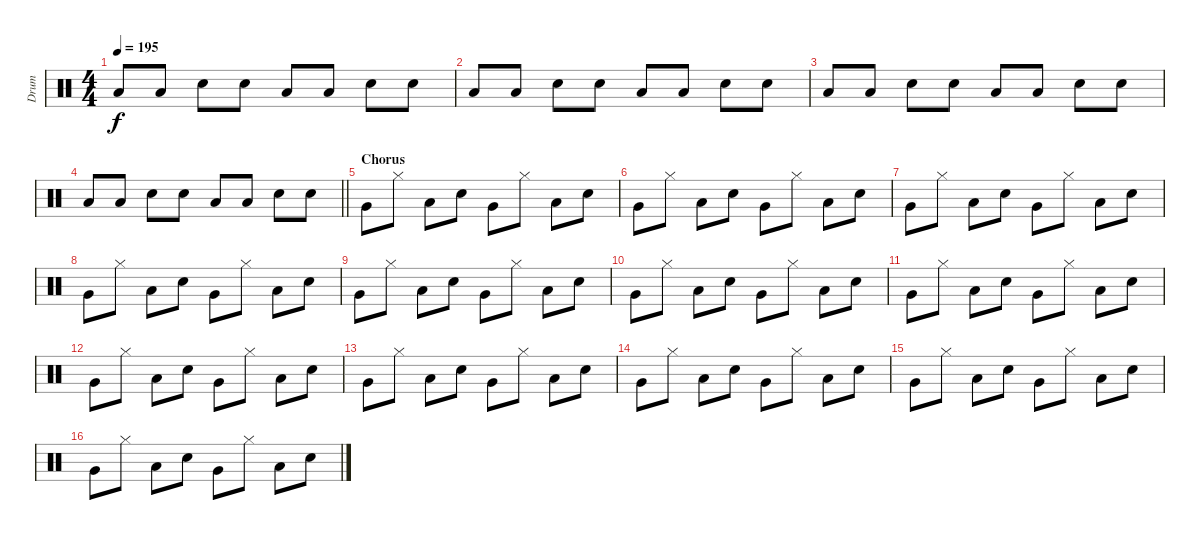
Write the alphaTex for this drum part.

\track ("Drum" "Drum") {instrument percussion}
\staff {score}
\articulation defaults
\ts (4 4)
\tempo 195
\clef neutral
\ks c "Low Floor Tom (hit)".8{dy f} "Low Floor Tom (hit)".8 "Electric Snare (hit)".8 "Electric Snare (hit)".8 "Low Floor Tom (hit)".8 "Low Floor Tom (hit)".8 "Electric Snare (hit)".8 "Electric Snare (hit)".8
|
"Low Floor Tom (hit)".8 "Low Floor Tom (hit)".8 "Electric Snare (hit)".8 "Electric Snare (hit)".8 "Low Floor Tom (hit)".8 "Low Floor Tom (hit)".8 "Electric Snare (hit)".8 "Electric Snare (hit)".8 |
"Low Floor Tom (hit)".8 "Low Floor Tom (hit)".8 "Electric Snare (hit)".8 "Electric Snare (hit)".8 "Low Floor Tom (hit)".8 "Low Floor Tom (hit)".8 "Electric Snare (hit)".8 "Electric Snare (hit)".8 |
\barLineRight lightlight "Low Floor Tom (hit)".8 "Low Floor Tom (hit)".8 "Electric Snare (hit)".8 "Electric Snare (hit)".8 "Low Floor Tom (hit)".8 "Low Floor Tom (hit)".8 "Electric Snare (hit)".8 "Electric Snare (hit)".8
|
\section ("" "Chorus")
"Very Low Tom (hit)".8 "Hi-Hat (closed)".8 "Low Floor Tom (hit)".8 "Electric Snare (hit)".8 "Very Low Tom (hit)".8 "Hi-Hat (closed)".8 "Low Floor Tom (hit)".8 "Electric Snare (hit)".8 |
"Very Low Tom (hit)".8 "Hi-Hat (closed)".8 "Low Floor Tom (hit)".8 "Electric Snare (hit)".8 "Very Low Tom (hit)".8 "Hi-Hat (closed)".8 "Low Floor Tom (hit)".8 "Electric Snare (hit)".8 |
"Very Low Tom (hit)".8 "Hi-Hat (closed)".8 "Low Floor Tom (hit)".8 "Electric Snare (hit)".8 "Very Low Tom (hit)".8 "Hi-Hat (closed)".8 "Low Floor Tom (hit)".8 "Electric Snare (hit)".8 |
"Very Low Tom (hit)".8 "Hi-Hat (closed)".8 "Low Floor Tom (hit)".8 "Electric Snare (hit)".8 "Very Low Tom (hit)".8 "Hi-Hat (closed)".8 "Low Floor Tom (hit)".8 "Electric Snare (hit)".8 |
"Very Low Tom (hit)".8 "Hi-Hat (closed)".8 "Low Floor Tom (hit)".8 "Electric Snare (hit)".8 "Very Low Tom (hit)".8 "Hi-Hat (closed)".8 "Low Floor Tom (hit)".8 "Electric Snare (hit)".8 |
"Very Low Tom (hit)".8 "Hi-Hat (closed)".8 "Low Floor Tom (hit)".8 "Electric Snare (hit)".8 "Very Low Tom (hit)".8 "Hi-Hat (closed)".8 "Low Floor Tom (hit)".8 "Electric Snare (hit)".8 |
"Very Low Tom (hit)".8 "Hi-Hat (closed)".8 "Low Floor Tom (hit)".8 "Electric Snare (hit)".8 "Very Low Tom (hit)".8 "Hi-Hat (closed)".8 "Low Floor Tom (hit)".8 "Electric Snare (hit)".8 |
"Very Low Tom (hit)".8 "Hi-Hat (closed)".8 "Low Floor Tom (hit)".8 "Electric Snare (hit)".8 "Very Low Tom (hit)".8 "Hi-Hat (closed)".8 "Low Floor Tom (hit)".8 "Electric Snare (hit)".8 |
"Very Low Tom (hit)".8 "Hi-Hat (closed)".8 "Low Floor Tom (hit)".8 "Electric Snare (hit)".8 "Very Low Tom (hit)".8 "Hi-Hat (closed)".8 "Low Floor Tom (hit)".8 "Electric Snare (hit)".8 |
"Very Low Tom (hit)".8 "Hi-Hat (closed)".8 "Low Floor Tom (hit)".8 "Electric Snare (hit)".8 "Very Low Tom (hit)".8 "Hi-Hat (closed)".8 "Low Floor Tom (hit)".8 "Electric Snare (hit)".8 |
"Very Low Tom (hit)".8 "Hi-Hat (closed)".8 "Low Floor Tom (hit)".8 "Electric Snare (hit)".8 "Very Low Tom (hit)".8 "Hi-Hat (closed)".8 "Low Floor Tom (hit)".8 "Electric Snare (hit)".8 |
"Very Low Tom (hit)".8 "Hi-Hat (closed)".8 "Low Floor Tom (hit)".8 "Electric Snare (hit)".8 "Very Low Tom (hit)".8 "Hi-Hat (closed)".8 "Low Floor Tom (hit)".8 "Electric Snare (hit)".8
